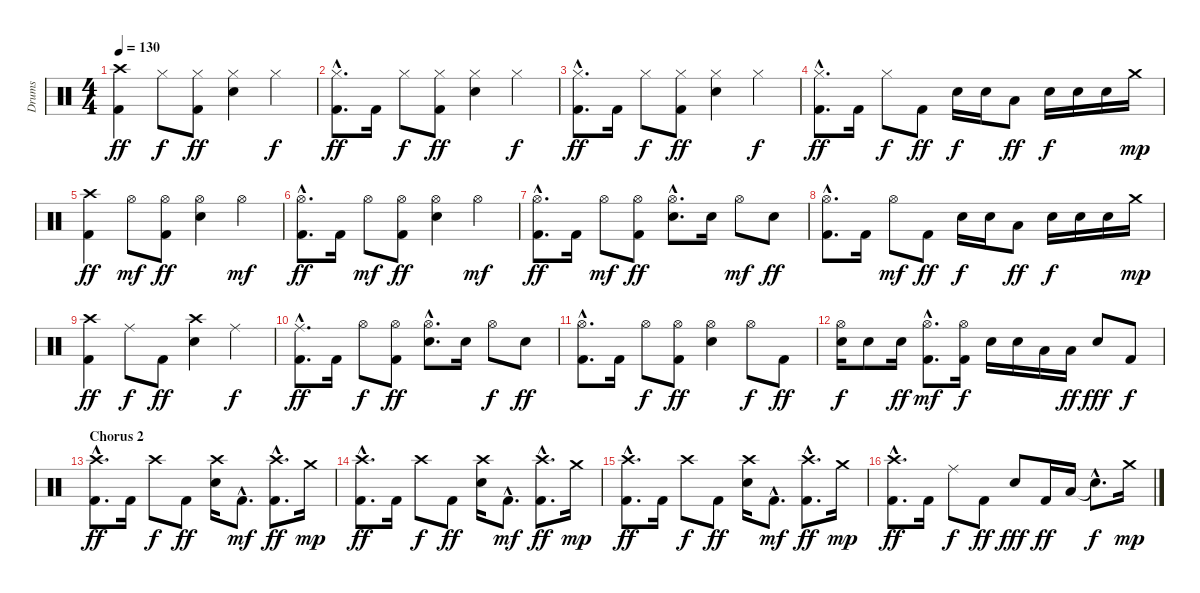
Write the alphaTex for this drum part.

\track ("Drums" "Drums") {instrument percussion}
\staff {score}
\articulation defaults
\ts (4 4)
\tempo 130
\clef neutral
\ks c
("Crash high (hit)" "Kick (hit) 2").4{dy ff} "Hi-Hat (closed)".8{dy f} ("Hi-Hat (closed)" "Kick (hit) 2").8{dy ff} ("Hi-Hat (closed)" "Electric Snare (hit)").4 "Hi-Hat (closed)".4{dy f} |
("Hi-Hat (closed)"{hac} "Kick (hit) 2"{hac}).8{d dy ff} "Kick (hit) 2".16 "Hi-Hat (closed)".8{dy f} ("Hi-Hat (closed)" "Kick (hit) 2").8{dy ff} ("Hi-Hat (closed)" "Electric Snare (hit)").4 "Hi-Hat (closed)".4{dy f} |
("Hi-Hat (closed)"{hac} "Kick (hit) 2"{hac}).8{d dy ff} "Kick (hit) 2".16 "Hi-Hat (closed)".8{dy f} ("Hi-Hat (closed)" "Kick (hit) 2").8{dy ff} ("Hi-Hat (closed)" "Electric Snare (hit)").4 "Hi-Hat (closed)".4{dy f} |
("Hi-Hat (closed)"{hac} "Kick (hit) 2"{hac}).8{d dy ff} "Kick (hit) 2".16 "Hi-Hat (closed)".8{dy f} "Kick (hit) 2".8{dy ff} "Electric Snare (hit)".16{dy f} "Electric Snare (hit)".16 "Low Tom (hit)".8{dy ff} "Electric Snare (hit)".16{dy f} "Electric Snare (hit)".16 "Electric Snare (hit)".16 "Crash medium (hit)".16{dy mp} |
("Crash high (hit)" "Kick (hit) 2").4{dy ff} "Hi-Hat (open)".8{dy mf} ("Hi-Hat (open)" "Kick (hit) 2").8{dy ff} ("Hi-Hat (open)" "Electric Snare (hit)").4 "Hi-Hat (open)".4{dy mf} |
("Hi-Hat (open)"{hac} "Kick (hit) 2"{hac}).8{d dy ff} "Kick (hit) 2".16 "Hi-Hat (open)".8{dy mf} ("Hi-Hat (open)" "Kick (hit) 2").8{dy ff} ("Hi-Hat (open)" "Electric Snare (hit)").4 "Hi-Hat (open)".4{dy mf} |
("Hi-Hat (open)"{hac} "Kick (hit) 2"{hac}).8{d dy ff} "Kick (hit) 2".16 "Hi-Hat (open)".8{dy mf} ("Hi-Hat (open)" "Kick (hit) 2").8{dy ff} ("Hi-Hat (open)"{hac} "Electric Snare (hit)"{hac}).8{d} "Electric Snare (hit)".16 "Hi-Hat (open)".8{dy mf} "Electric Snare (hit)".8{dy ff} |
("Hi-Hat (open)"{hac} "Kick (hit) 2"{hac}).8{d} "Kick (hit) 2".16 "Hi-Hat (open)".8{dy mf} "Kick (hit) 2".8{dy ff} "Electric Snare (hit)".16{dy f} "Electric Snare (hit)".16 "Low Tom (hit)".8{dy ff} "Electric Snare (hit)".16{dy f} "Electric Snare (hit)".16 "Electric Snare (hit)".16 "Crash medium (hit)".16{dy mp} |
("Crash high (hit)" "Kick (hit) 2").4{dy ff} "Ride (middle)".8{dy f} "Kick (hit) 2".8{dy ff} ("Crash high (hit)" "Electric Snare (hit)").4 "Ride (middle)".4{dy f} |
("Ride (middle)"{hac} "Kick (hit) 2"{hac}).8{d dy ff} "Kick (hit) 2".16 "Hi-Hat (open)".8{dy f} ("Hi-Hat (open)" "Kick (hit) 2").8{dy ff} ("Hi-Hat (open)"{hac} "Electric Snare (hit)"{hac}).8{d} "Electric Snare (hit)".16 "Hi-Hat (open)".8{dy f} "Electric Snare (hit)".8{dy ff} |
("Hi-Hat (open)"{hac} "Kick (hit) 2"{hac}).8{d} "Kick (hit) 2".16 "Hi-Hat (open)".8{dy f} ("Hi-Hat (open)" "Kick (hit) 2").8{dy ff} ("Hi-Hat (open)" "Electric Snare (hit)").4 "Hi-Hat (open)".8{dy f} "Kick (hit) 2".8{dy ff} |
("Hi-Hat (open)" "Electric Snare (hit)").16{dy f} "Electric Snare (hit)".8 "Electric Snare (hit)".16{dy ff} ("Hi-Hat (open)"{hac} "Kick (hit) 2"{hac}).8{d dy mf} ("Hi-Hat (open)" "Kick (hit) 2").16{dy f} "Electric Snare (hit)".16 "Electric Snare (hit)".16 "Low Tom (hit)".16 "Low Tom (hit)".16{dy ff} "Electric Snare (hit)".8{dy fff} "Kick (hit) 2".8{dy f} |
\section ("" "Chorus 2")
("Crash high (hit)"{hac} "Kick (hit) 2"{hac}).8{d dy ff} "Kick (hit) 2".16 "Crash high (hit)".8{dy f} "Kick (hit) 2".8{dy ff} ("Crash high (hit)" "Electric Snare (hit)").16 "Kick (hit) 2"{hac}.8{d dy mf} ("Crash high (hit)"{hac} "Kick (hit) 2"{hac}).8{d dy ff} "Crash medium (hit)".16{dy mp} |
("Crash high (hit)"{hac} "Kick (hit) 2"{hac}).8{d dy ff} "Kick (hit) 2".16 "Crash high (hit)".8{dy f} "Kick (hit) 2".8{dy ff} ("Crash high (hit)" "Electric Snare (hit)").16 "Kick (hit) 2"{hac}.8{d dy mf} ("Crash high (hit)"{hac} "Kick (hit) 2"{hac}).8{d dy ff} "Crash medium (hit)".16{dy mp} |
("Crash high (hit)"{hac} "Kick (hit) 2"{hac}).8{d dy ff} "Kick (hit) 2".16 "Crash high (hit)".8{dy f} "Kick (hit) 2".8{dy ff} ("Crash high (hit)" "Electric Snare (hit)").16 "Kick (hit) 2"{hac}.8{d dy mf} ("Crash high (hit)"{hac} "Kick (hit) 2"{hac}).8{d dy ff} "Crash medium (hit)".16{dy mp} |
("Crash high (hit)"{hac} "Kick (hit) 2"{hac}).8{d dy ff} "Kick (hit) 2".16 "Ride (middle)".8{dy f} "Kick (hit) 2".8{dy ff} "Electric Snare (hit)".8{dy fff} "Kick (hit) 2".16{dy ff} "Low Tom (hit)".16 "Snare (hit)"{hac t}.8{d dy f} "Crash medium (hit)".16{dy mp}
